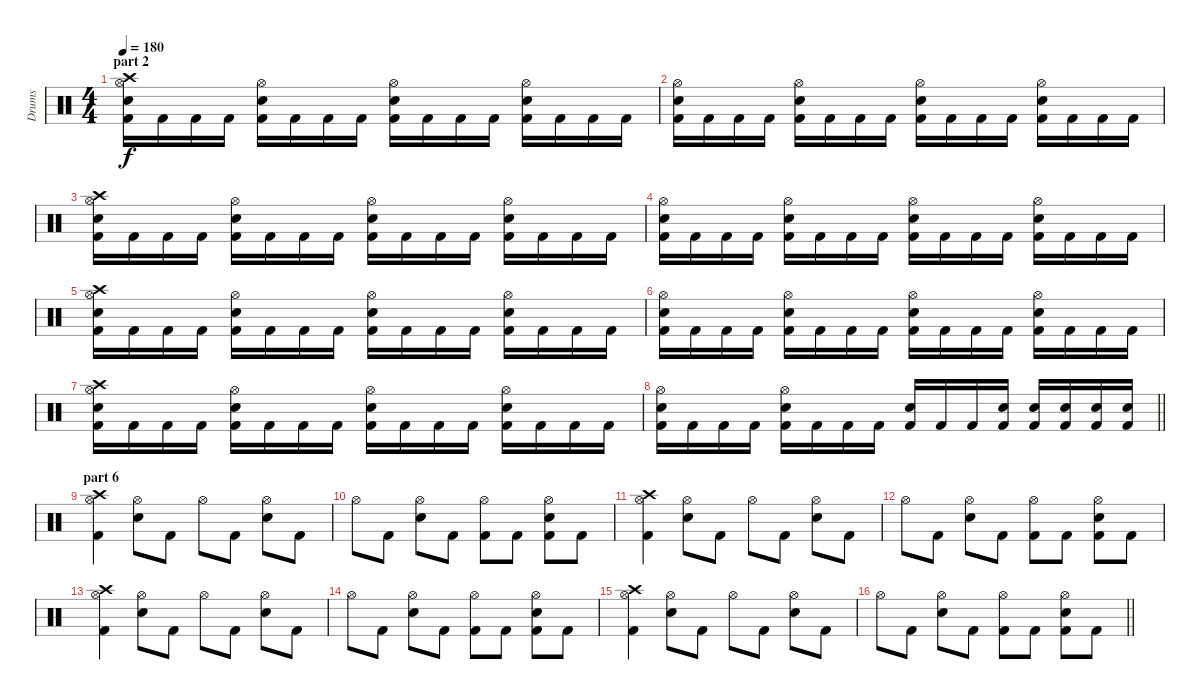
\track ("Drums" "Drums") {instrument percussion}
\staff {score}
\articulation defaults
\ts (4 4)
\section ("" "part 2")
\tempo 180
\clef neutral
\ks c
("Crash high (hit)" "Hi-Hat (open)" "Electric Snare (hit)" "Kick (hit) 2").16{dy f} "Kick (hit) 2".16 "Kick (hit) 2".16 "Kick (hit) 2".16 ("Hi-Hat (open)" "Electric Snare (hit)" "Kick (hit) 2").16 "Kick (hit) 2".16 "Kick (hit) 2".16 "Kick (hit) 2".16 ("Hi-Hat (open)" "Electric Snare (hit)" "Kick (hit) 2").16 "Kick (hit) 2".16 "Kick (hit) 2".16 "Kick (hit) 2".16 ("Hi-Hat (open)" "Electric Snare (hit)" "Kick (hit) 2").16 "Kick (hit) 2".16 "Kick (hit) 2".16 "Kick (hit) 2".16 |
("Hi-Hat (open)" "Electric Snare (hit)" "Kick (hit) 2").16 "Kick (hit) 2".16 "Kick (hit) 2".16 "Kick (hit) 2".16 ("Hi-Hat (open)" "Electric Snare (hit)" "Kick (hit) 2").16 "Kick (hit) 2".16 "Kick (hit) 2".16 "Kick (hit) 2".16 ("Hi-Hat (open)" "Electric Snare (hit)" "Kick (hit) 2").16 "Kick (hit) 2".16 "Kick (hit) 2".16 "Kick (hit) 2".16 ("Hi-Hat (open)" "Electric Snare (hit)" "Kick (hit) 2").16 "Kick (hit) 2".16 "Kick (hit) 2".16 "Kick (hit) 2".16 |
("Crash high (hit)" "Hi-Hat (open)" "Electric Snare (hit)" "Kick (hit) 2").16 "Kick (hit) 2".16 "Kick (hit) 2".16 "Kick (hit) 2".16 ("Hi-Hat (open)" "Electric Snare (hit)" "Kick (hit) 2").16 "Kick (hit) 2".16 "Kick (hit) 2".16 "Kick (hit) 2".16 ("Hi-Hat (open)" "Electric Snare (hit)" "Kick (hit) 2").16 "Kick (hit) 2".16 "Kick (hit) 2".16 "Kick (hit) 2".16 ("Hi-Hat (open)" "Electric Snare (hit)" "Kick (hit) 2").16 "Kick (hit) 2".16 "Kick (hit) 2".16 "Kick (hit) 2".16 |
("Hi-Hat (open)" "Electric Snare (hit)" "Kick (hit) 2").16 "Kick (hit) 2".16 "Kick (hit) 2".16 "Kick (hit) 2".16 ("Hi-Hat (open)" "Electric Snare (hit)" "Kick (hit) 2").16 "Kick (hit) 2".16 "Kick (hit) 2".16 "Kick (hit) 2".16 ("Hi-Hat (open)" "Electric Snare (hit)" "Kick (hit) 2").16 "Kick (hit) 2".16 "Kick (hit) 2".16 "Kick (hit) 2".16 ("Hi-Hat (open)" "Electric Snare (hit)" "Kick (hit) 2").16 "Kick (hit) 2".16 "Kick (hit) 2".16 "Kick (hit) 2".16 |
("Crash high (hit)" "Hi-Hat (open)" "Electric Snare (hit)" "Kick (hit) 2").16 "Kick (hit) 2".16 "Kick (hit) 2".16 "Kick (hit) 2".16 ("Hi-Hat (open)" "Electric Snare (hit)" "Kick (hit) 2").16 "Kick (hit) 2".16 "Kick (hit) 2".16 "Kick (hit) 2".16 ("Hi-Hat (open)" "Electric Snare (hit)" "Kick (hit) 2").16 "Kick (hit) 2".16 "Kick (hit) 2".16 "Kick (hit) 2".16 ("Hi-Hat (open)" "Electric Snare (hit)" "Kick (hit) 2").16 "Kick (hit) 2".16 "Kick (hit) 2".16 "Kick (hit) 2".16 |
("Hi-Hat (open)" "Electric Snare (hit)" "Kick (hit) 2").16 "Kick (hit) 2".16 "Kick (hit) 2".16 "Kick (hit) 2".16 ("Hi-Hat (open)" "Electric Snare (hit)" "Kick (hit) 2").16 "Kick (hit) 2".16 "Kick (hit) 2".16 "Kick (hit) 2".16 ("Hi-Hat (open)" "Electric Snare (hit)" "Kick (hit) 2").16 "Kick (hit) 2".16 "Kick (hit) 2".16 "Kick (hit) 2".16 ("Hi-Hat (open)" "Electric Snare (hit)" "Kick (hit) 2").16 "Kick (hit) 2".16 "Kick (hit) 2".16 "Kick (hit) 2".16 |
("Crash high (hit)" "Hi-Hat (open)" "Electric Snare (hit)" "Kick (hit) 2").16 "Kick (hit) 2".16 "Kick (hit) 2".16 "Kick (hit) 2".16 ("Hi-Hat (open)" "Electric Snare (hit)" "Kick (hit) 2").16 "Kick (hit) 2".16 "Kick (hit) 2".16 "Kick (hit) 2".16 ("Hi-Hat (open)" "Electric Snare (hit)" "Kick (hit) 2").16 "Kick (hit) 2".16 "Kick (hit) 2".16 "Kick (hit) 2".16 ("Hi-Hat (open)" "Electric Snare (hit)" "Kick (hit) 2").16 "Kick (hit) 2".16 "Kick (hit) 2".16 "Kick (hit) 2".16 |
\barLineRight lightlight
("Hi-Hat (open)" "Electric Snare (hit)" "Kick (hit) 2").16 "Kick (hit) 2".16 "Kick (hit) 2".16 "Kick (hit) 2".16 ("Hi-Hat (open)" "Electric Snare (hit)" "Kick (hit) 2").16 "Kick (hit) 2".16 "Kick (hit) 2".16 "Kick (hit) 2".16 ("Electric Snare (hit)" "Kick (hit) 2").16 "Kick (hit) 2".16 "Kick (hit) 2".16 ("Electric Snare (hit)" "Kick (hit) 2").16 ("Electric Snare (hit)" "Kick (hit) 2").16 ("Electric Snare (hit)" "Kick (hit) 2").16 ("Electric Snare (hit)" "Kick (hit) 2").16 ("Electric Snare (hit)" "Kick (hit) 2").16 |
\section ("" "part 6")
("Crash high (hit)" "Hi-Hat (open)" "Kick (hit) 2").4 ("Hi-Hat (open)" "Electric Snare (hit)").8 "Kick (hit) 2".8 "Hi-Hat (open)".8 "Kick (hit) 2".8 ("Hi-Hat (open)" "Electric Snare (hit)").8 "Kick (hit) 2".8 |
"Hi-Hat (open)".8 "Kick (hit) 2".8 ("Hi-Hat (open)" "Electric Snare (hit)").8 "Kick (hit) 2".8 ("Hi-Hat (open)" "Kick (hit) 2").8 "Kick (hit) 2".8 ("Hi-Hat (open)" "Electric Snare (hit)" "Kick (hit) 2").8 "Kick (hit) 2".8 |
("Crash high (hit)" "Hi-Hat (open)" "Kick (hit) 2").4 ("Hi-Hat (open)" "Electric Snare (hit)").8 "Kick (hit) 2".8 "Hi-Hat (open)".8 "Kick (hit) 2".8 ("Hi-Hat (open)" "Electric Snare (hit)").8 "Kick (hit) 2".8 |
"Hi-Hat (open)".8 "Kick (hit) 2".8 ("Hi-Hat (open)" "Electric Snare (hit)").8 "Kick (hit) 2".8 ("Hi-Hat (open)" "Kick (hit) 2").8 "Kick (hit) 2".8 ("Hi-Hat (open)" "Electric Snare (hit)" "Kick (hit) 2").8 "Kick (hit) 2".8 |
("Crash high (hit)" "Hi-Hat (open)" "Kick (hit) 2").4 ("Hi-Hat (open)" "Electric Snare (hit)").8 "Kick (hit) 2".8 "Hi-Hat (open)".8 "Kick (hit) 2".8 ("Hi-Hat (open)" "Electric Snare (hit)").8 "Kick (hit) 2".8 |
"Hi-Hat (open)".8 "Kick (hit) 2".8 ("Hi-Hat (open)" "Electric Snare (hit)").8 "Kick (hit) 2".8 ("Hi-Hat (open)" "Kick (hit) 2").8 "Kick (hit) 2".8 ("Hi-Hat (open)" "Electric Snare (hit)" "Kick (hit) 2").8 "Kick (hit) 2".8 |
("Crash high (hit)" "Hi-Hat (open)" "Kick (hit) 2").4 ("Hi-Hat (open)" "Electric Snare (hit)").8 "Kick (hit) 2".8 "Hi-Hat (open)".8 "Kick (hit) 2".8 ("Hi-Hat (open)" "Electric Snare (hit)").8 "Kick (hit) 2".8 |
\barLineRight lightlight "Hi-Hat (open)".8 "Kick (hit) 2".8
("Hi-Hat (open)" "Electric Snare (hit)").8 "Kick (hit) 2".8 ("Hi-Hat (open)" "Kick (hit) 2").8 "Kick (hit) 2".8 ("Hi-Hat (open)" "Electric Snare (hit)" "Kick (hit) 2").8 "Kick (hit) 2".8
